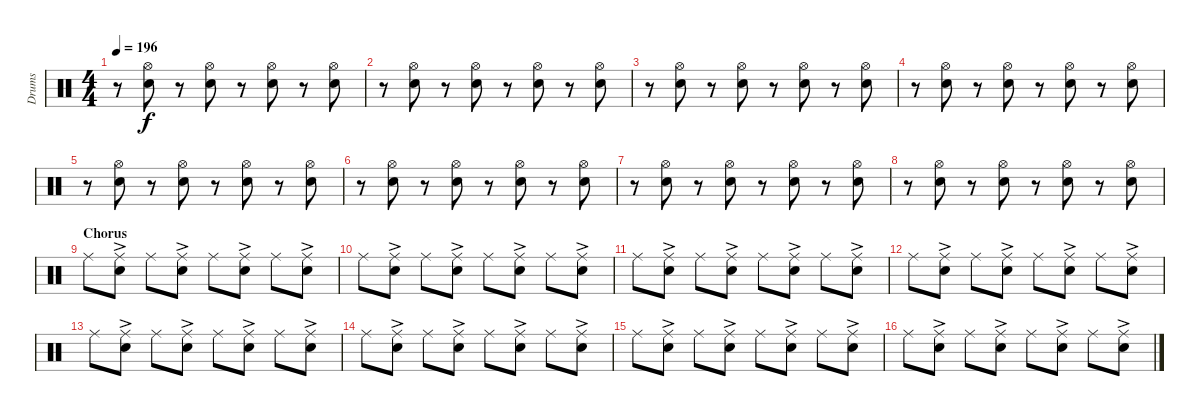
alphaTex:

\track ("Drums" "Drums") {instrument percussion}
\staff {score}
\articulation defaults
\ts (4 4)
\tempo 196
\clef neutral
\ks c
r.8{dy f} ("Hi-Hat (open)" "Electric Snare (hit)").8 r.8 ("Hi-Hat (open)" "Electric Snare (hit)").8 r.8 ("Hi-Hat (open)" "Electric Snare (hit)").8 r.8 ("Hi-Hat (open)" "Electric Snare (hit)").8 |
r.8 ("Hi-Hat (open)" "Electric Snare (hit)").8 r.8 ("Hi-Hat (open)" "Electric Snare (hit)").8 r.8 ("Hi-Hat (open)" "Electric Snare (hit)").8 r.8 ("Hi-Hat (open)" "Electric Snare (hit)").8 |
r.8 ("Hi-Hat (open)" "Electric Snare (hit)").8 r.8 ("Hi-Hat (open)" "Electric Snare (hit)").8 r.8 ("Hi-Hat (open)" "Electric Snare (hit)").8 r.8 ("Hi-Hat (open)" "Electric Snare (hit)").8 |
r.8 ("Hi-Hat (open)" "Electric Snare (hit)").8 r.8 ("Hi-Hat (open)" "Electric Snare (hit)").8 r.8 ("Hi-Hat (open)" "Electric Snare (hit)").8 r.8 ("Hi-Hat (open)" "Electric Snare (hit)").8 |
r.8 ("Hi-Hat (open)" "Electric Snare (hit)").8 r.8 ("Hi-Hat (open)" "Electric Snare (hit)").8 r.8 ("Hi-Hat (open)" "Electric Snare (hit)").8 r.8 ("Hi-Hat (open)" "Electric Snare (hit)").8 |
r.8 ("Hi-Hat (open)" "Electric Snare (hit)").8 r.8 ("Hi-Hat (open)" "Electric Snare (hit)").8 r.8 ("Hi-Hat (open)" "Electric Snare (hit)").8 r.8 ("Hi-Hat (open)" "Electric Snare (hit)").8 |
r.8 ("Hi-Hat (open)" "Electric Snare (hit)").8 r.8 ("Hi-Hat (open)" "Electric Snare (hit)").8 r.8 ("Hi-Hat (open)" "Electric Snare (hit)").8 r.8 ("Hi-Hat (open)" "Electric Snare (hit)").8 |
r.8 ("Hi-Hat (open)" "Electric Snare (hit)").8 r.8 ("Hi-Hat (open)" "Electric Snare (hit)").8 r.8 ("Hi-Hat (open)" "Electric Snare (hit)").8 r.8 ("Hi-Hat (open)" "Electric Snare (hit)").8 |
\section ("" "Chorus")
"Ride (middle)".8 ("Ride (middle)" "Electric Snare (hit)"{ac}).8 "Ride (middle)".8 ("Ride (middle)" "Electric Snare (hit)"{ac}).8 "Ride (middle)".8 ("Ride (middle)" "Electric Snare (hit)"{ac}).8 "Ride (middle)".8 ("Ride (middle)" "Electric Snare (hit)"{ac}).8 |
"Ride (middle)".8 ("Ride (middle)" "Electric Snare (hit)"{ac}).8 "Ride (middle)".8 ("Ride (middle)" "Electric Snare (hit)"{ac}).8 "Ride (middle)".8 ("Ride (middle)" "Electric Snare (hit)"{ac}).8 "Ride (middle)".8 ("Ride (middle)" "Electric Snare (hit)"{ac}).8 |
"Ride (middle)".8 ("Ride (middle)" "Electric Snare (hit)"{ac}).8 "Ride (middle)".8 ("Ride (middle)" "Electric Snare (hit)"{ac}).8 "Ride (middle)".8 ("Ride (middle)" "Electric Snare (hit)"{ac}).8 "Ride (middle)".8 ("Ride (middle)" "Electric Snare (hit)"{ac}).8 |
"Ride (middle)".8 ("Ride (middle)" "Electric Snare (hit)"{ac}).8 "Ride (middle)".8 ("Ride (middle)" "Electric Snare (hit)"{ac}).8 "Ride (middle)".8 ("Ride (middle)" "Electric Snare (hit)"{ac}).8 "Ride (middle)".8 ("Ride (middle)" "Electric Snare (hit)"{ac}).8 |
"Ride (middle)".8 ("Ride (middle)" "Electric Snare (hit)"{ac}).8 "Ride (middle)".8 ("Ride (middle)" "Electric Snare (hit)"{ac}).8 "Ride (middle)".8 ("Ride (middle)" "Electric Snare (hit)"{ac}).8 "Ride (middle)".8 ("Ride (middle)" "Electric Snare (hit)"{ac}).8 |
"Ride (middle)".8 ("Ride (middle)" "Electric Snare (hit)"{ac}).8 "Ride (middle)".8 ("Ride (middle)" "Electric Snare (hit)"{ac}).8 "Ride (middle)".8 ("Ride (middle)" "Electric Snare (hit)"{ac}).8 "Ride (middle)".8 ("Ride (middle)" "Electric Snare (hit)"{ac}).8 |
"Ride (middle)".8 ("Ride (middle)" "Electric Snare (hit)"{ac}).8 "Ride (middle)".8 ("Ride (middle)" "Electric Snare (hit)"{ac}).8 "Ride (middle)".8 ("Ride (middle)" "Electric Snare (hit)"{ac}).8 "Ride (middle)".8 ("Ride (middle)" "Electric Snare (hit)"{ac}).8 |
"Ride (middle)".8 ("Ride (middle)" "Electric Snare (hit)"{ac}).8 "Ride (middle)".8 ("Ride (middle)" "Electric Snare (hit)"{ac}).8 "Ride (middle)".8 ("Ride (middle)" "Electric Snare (hit)"{ac}).8 "Ride (middle)".8 ("Ride (middle)" "Electric Snare (hit)"{ac}).8
